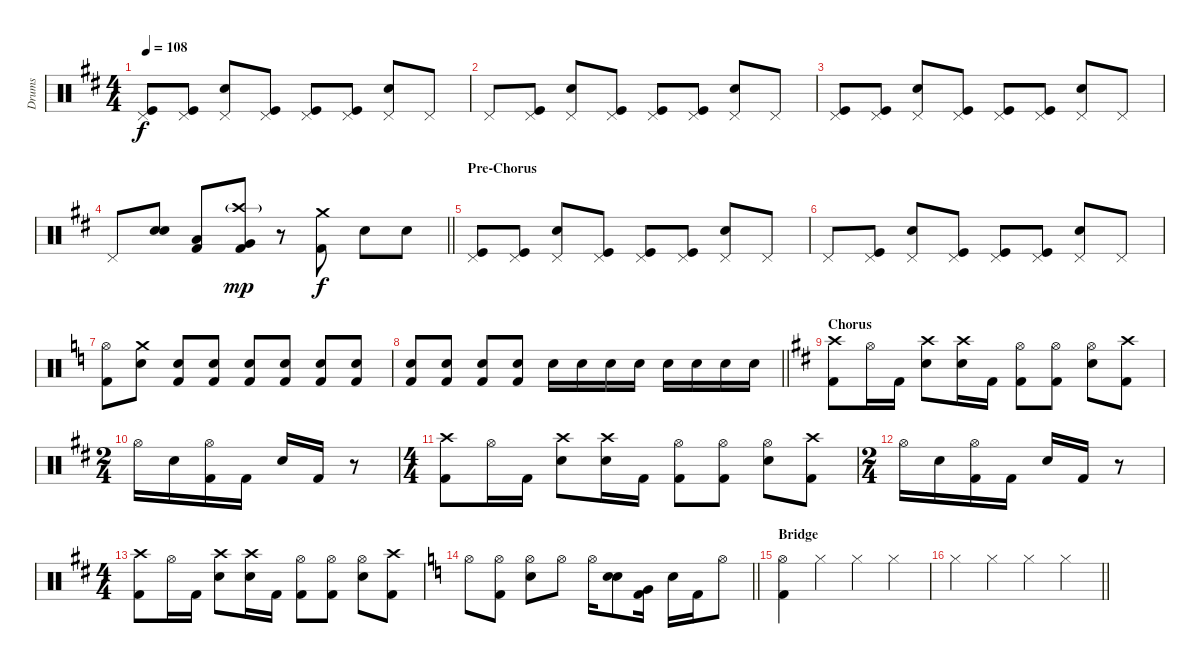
\track ("Drums" "Drums") {instrument percussion}
\staff {score}
\articulation defaults
\ts (4 4)
\tempo 108
\clef neutral
\ks d
("Pedal Hi-Hat (hit)" "Kick (hit)").8{dy f} ("Pedal Hi-Hat (hit)" "Kick (hit)").8 ("Pedal Hi-Hat (hit)" "Electric Snare (hit)").8 ("Pedal Hi-Hat (hit)" "Kick (hit)").8 ("Pedal Hi-Hat (hit)" "Kick (hit)").8 ("Pedal Hi-Hat (hit)" "Kick (hit)").8 ("Pedal Hi-Hat (hit)" "Electric Snare (hit)").8 "Pedal Hi-Hat (hit)".8 |
"Pedal Hi-Hat (hit)".8 ("Pedal Hi-Hat (hit)" "Kick (hit)").8 ("Pedal Hi-Hat (hit)" "Electric Snare (hit)").8 ("Pedal Hi-Hat (hit)" "Kick (hit)").8 ("Pedal Hi-Hat (hit)" "Kick (hit)").8 ("Pedal Hi-Hat (hit)" "Kick (hit)").8 ("Pedal Hi-Hat (hit)" "Electric Snare (hit)").8 "Pedal Hi-Hat (hit)".8 |
("Pedal Hi-Hat (hit)" "Kick (hit)").8 ("Pedal Hi-Hat (hit)" "Kick (hit)").8 ("Pedal Hi-Hat (hit)" "Electric Snare (hit)").8 ("Pedal Hi-Hat (hit)" "Kick (hit)").8 ("Pedal Hi-Hat (hit)" "Kick (hit)").8 ("Pedal Hi-Hat (hit)" "Kick (hit)").8 ("Pedal Hi-Hat (hit)" "Electric Snare (hit)").8 "Pedal Hi-Hat (hit)".8 |
\barLineRight lightlight "Pedal Hi-Hat (hit)".8
("Snare (hit) 2" "Snare (hit) 2").8 ("Low Tom (hit)" "Kick (hit) 2").8 ("Crash high (hit)"{g} "Very Low Tom (hit)" "Kick (hit) 2").8{dy mp} r.8 ("Crash medium (hit)" "Kick (hit) 2").8{dy f} "Snare (hit) 2".8 "Snare (hit) 2".8 |
\section ("" "Pre-Chorus")
("Pedal Hi-Hat (hit)" "Kick (hit)").8 ("Pedal Hi-Hat (hit)" "Kick (hit)").8 ("Pedal Hi-Hat (hit)" "Electric Snare (hit)").8 ("Pedal Hi-Hat (hit)" "Kick (hit)").8 ("Pedal Hi-Hat (hit)" "Kick (hit)").8 ("Pedal Hi-Hat (hit)" "Kick (hit)").8 ("Pedal Hi-Hat (hit)" "Electric Snare (hit)").8 "Pedal Hi-Hat (hit)".8 |
"Pedal Hi-Hat (hit)".8 ("Pedal Hi-Hat (hit)" "Kick (hit)").8 ("Pedal Hi-Hat (hit)" "Electric Snare (hit)").8 ("Pedal Hi-Hat (hit)" "Kick (hit)").8 ("Pedal Hi-Hat (hit)" "Kick (hit)").8 ("Pedal Hi-Hat (hit)" "Kick (hit)").8 ("Pedal Hi-Hat (hit)" "Electric Snare (hit)").8 "Pedal Hi-Hat (hit)".8 |
\ks c
("Hi-Hat (open)" "Kick (hit) 2").8 ("Crash medium (hit)" "Snare (hit) 2").8 ("Snare (hit) 2" "Kick (hit) 2").8 ("Snare (hit) 2" "Kick (hit) 2").8 ("Snare (hit) 2" "Kick (hit) 2").8 ("Snare (hit) 2" "Kick (hit) 2").8 ("Snare (hit) 2" "Kick (hit) 2").8 ("Snare (hit) 2" "Kick (hit) 2").8 |
\barLineRight lightlight
("Snare (hit) 2" "Kick (hit) 2").8 ("Snare (hit) 2" "Kick (hit) 2").8 ("Snare (hit) 2" "Kick (hit) 2").8 ("Snare (hit) 2" "Kick (hit) 2").8 "Snare (hit) 2".16 "Snare (hit) 2".16 "Snare (hit) 2".16 "Snare (hit) 2".16 "Snare (hit) 2".16 "Snare (hit) 2".16 "Snare (hit) 2".16 "Snare (hit) 2".16 |
\section ("" "Chorus")
\ks d
("Crash high (hit)" "Kick (hit) 2").8{volume 16} "Hi-Hat (open)".16 "Kick (hit) 2".16 ("Crash high (hit)" "Snare (hit) 2").8 ("Crash high (hit)" "Snare (hit) 2").16 "Kick (hit) 2".16 ("Hi-Hat (open)" "Kick (hit) 2").8 ("Hi-Hat (open)" "Kick (hit) 2").8 ("Hi-Hat (open)" "Snare (hit) 2").8 ("Crash high (hit)" "Kick (hit) 2").8 |
\ts (2 4)
"Hi-Hat (open)".16 "Snare (hit) 2".16 ("Hi-Hat (open)" "Kick (hit) 2").16 "Kick (hit) 2".16 "Snare (hit) 2".16 "Kick (hit) 2".16 r.8 |
\ts (4 4)
("Crash high (hit)" "Kick (hit) 2").8 "Hi-Hat (open)".16 "Kick (hit) 2".16 ("Crash high (hit)" "Snare (hit) 2").8 ("Crash high (hit)" "Snare (hit) 2").16 "Kick (hit) 2".16 ("Hi-Hat (open)" "Kick (hit) 2").8 ("Hi-Hat (open)" "Kick (hit) 2").8 ("Hi-Hat (open)" "Snare (hit) 2").8 ("Crash high (hit)" "Kick (hit) 2").8 |
\ts (2 4)
"Hi-Hat (open)".16 "Snare (hit) 2".16 ("Hi-Hat (open)" "Kick (hit) 2").16 "Kick (hit) 2".16 "Snare (hit) 2".16 "Kick (hit) 2".16 r.8 |
\ts (4 4)
("Crash high (hit)" "Kick (hit) 2").8 "Hi-Hat (open)".16 "Kick (hit) 2".16 ("Crash high (hit)" "Snare (hit) 2").8 ("Crash high (hit)" "Snare (hit) 2").16 "Kick (hit) 2".16 ("Hi-Hat (open)" "Kick (hit) 2").8 ("Hi-Hat (open)" "Kick (hit) 2").8 ("Hi-Hat (open)" "Snare (hit) 2").8 ("Crash high (hit)" "Kick (hit) 2").8 |
\barLineRight lightlight
\ks c "Hi-Hat (open)".8
("Hi-Hat (open)" "Kick (hit) 2").8 ("Hi-Hat (open)" "Snare (hit) 2").8 "Hi-Hat (open)".8 "Hi-Hat (open)".16 ("Snare (hit) 2" "Snare (hit) 2").8 ("Very Low Tom (hit)" "Kick (hit) 2").16 "Snare (hit) 2".16 "Kick (hit) 2".16 "Hi-Hat (open)".8 |
\section ("" "Bridge")
("Hi-Hat (open)" "Kick (hit) 2").4 "Hi-Hat (closed)".4 "Hi-Hat (closed)".4 "Hi-Hat (closed)".4 |
\barLineRight lightlight "Hi-Hat (closed)".4 "Hi-Hat (closed)".4 "Hi-Hat (closed)".4 "Hi-Hat (closed)".4
